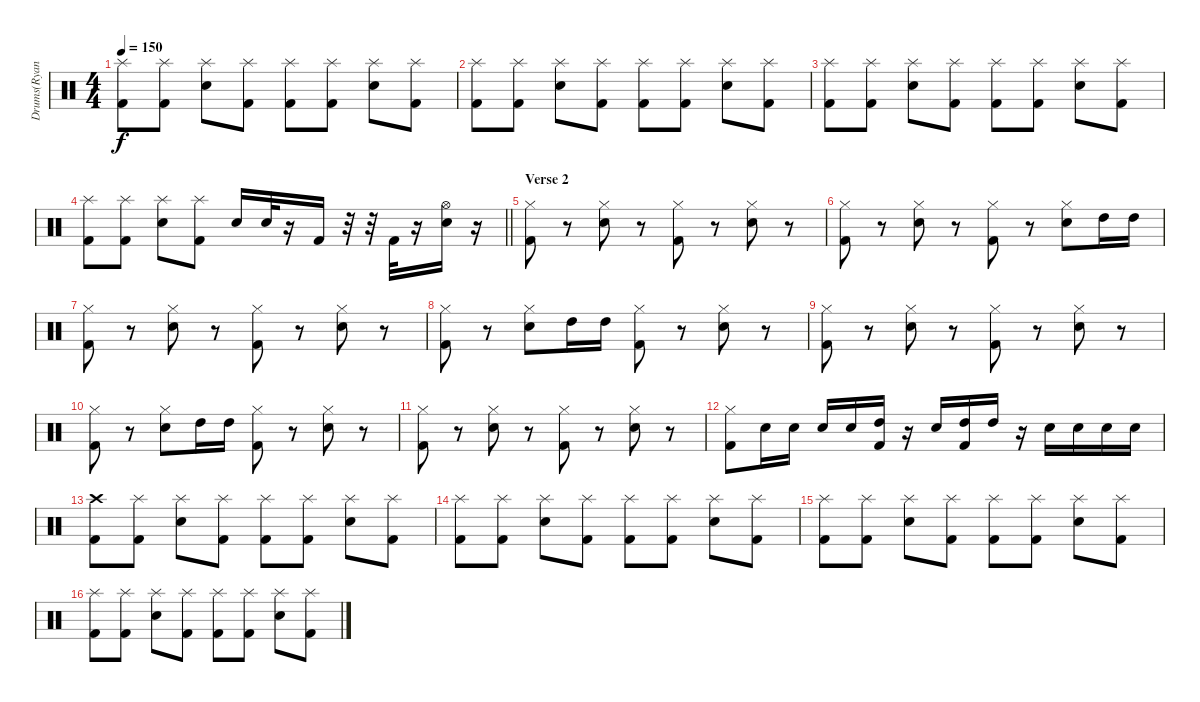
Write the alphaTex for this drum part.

\track ("Drums(Ryan)" "Drums(Ryan") {instrument percussion}
\staff {score}
\articulation defaults
\ts (4 4)
\tempo 150
\clef neutral
\ks c
("Splash (hit)" "Kick (hit) 2").8{dy f} ("Splash (hit)" "Kick (hit) 2").8 ("Splash (hit)" "Electric Snare (hit)").8 ("Splash (hit)" "Kick (hit) 2").8 ("Splash (hit)" "Kick (hit) 2").8 ("Splash (hit)" "Kick (hit) 2").8 ("Splash (hit)" "Electric Snare (hit)").8 ("Splash (hit)" "Kick (hit) 2").8 |
("Splash (hit)" "Kick (hit) 2").8 ("Splash (hit)" "Kick (hit) 2").8 ("Splash (hit)" "Electric Snare (hit)").8 ("Splash (hit)" "Kick (hit) 2").8 ("Splash (hit)" "Kick (hit) 2").8 ("Splash (hit)" "Kick (hit) 2").8 ("Splash (hit)" "Electric Snare (hit)").8 ("Splash (hit)" "Kick (hit) 2").8 |
("Splash (hit)" "Kick (hit) 2").8 ("Splash (hit)" "Kick (hit) 2").8 ("Splash (hit)" "Electric Snare (hit)").8 ("Splash (hit)" "Kick (hit) 2").8 ("Splash (hit)" "Kick (hit) 2").8 ("Splash (hit)" "Kick (hit) 2").8 ("Splash (hit)" "Electric Snare (hit)").8 ("Splash (hit)" "Kick (hit) 2").8 |
\barLineRight lightlight
("Splash (hit)" "Kick (hit) 2").8 ("Splash (hit)" "Kick (hit) 2").8 ("Splash (hit)" "Electric Snare (hit)").8 ("Splash (hit)" "Kick (hit) 2").8 "Electric Snare (hit)".16 "Electric Snare (hit)".32 r.16 "Kick (hit) 2".16 r.32 r.32 "Kick (hit) 2".32 r.16 ("Hi-Hat (open)" "Electric Snare (hit)").16 r.16 |
\section ("" "Verse 2")
("Hi-Hat (closed)" "Kick (hit) 2").8 r.8 ("Hi-Hat (closed)" "Electric Snare (hit)").8 r.8 ("Hi-Hat (closed)" "Kick (hit) 2").8 r.8 ("Hi-Hat (closed)" "Electric Snare (hit)").8 r.8 |
("Hi-Hat (closed)" "Kick (hit) 2").8 r.8 ("Hi-Hat (closed)" "Electric Snare (hit)").8 r.8 ("Hi-Hat (closed)" "Kick (hit) 2").8 r.8 ("Hi-Hat (closed)" "Electric Snare (hit)").8 "High Tom (hit)".16 "High Tom (hit)".16 |
("Hi-Hat (closed)" "Kick (hit) 2").8 r.8 ("Hi-Hat (closed)" "Electric Snare (hit)").8 r.8 ("Hi-Hat (closed)" "Kick (hit) 2").8 r.8 ("Hi-Hat (closed)" "Electric Snare (hit)").8 r.8 |
("Hi-Hat (closed)" "Kick (hit) 2").8 r.8 ("Hi-Hat (closed)" "Electric Snare (hit)").8 "High Tom (hit)".16 "High Tom (hit)".16 ("Hi-Hat (closed)" "Kick (hit) 2").8 r.8 ("Hi-Hat (closed)" "Electric Snare (hit)").8 r.8 |
("Hi-Hat (closed)" "Kick (hit) 2").8 r.8 ("Hi-Hat (closed)" "Electric Snare (hit)").8 r.8 ("Hi-Hat (closed)" "Kick (hit) 2").8 r.8 ("Hi-Hat (closed)" "Electric Snare (hit)").8 r.8 |
("Hi-Hat (closed)" "Kick (hit) 2").8 r.8 ("Hi-Hat (closed)" "Electric Snare (hit)").8 "High Tom (hit)".16 "High Tom (hit)".16 ("Hi-Hat (closed)" "Kick (hit) 2").8 r.8 ("Hi-Hat (closed)" "Electric Snare (hit)").8 r.8 |
("Hi-Hat (closed)" "Kick (hit) 2").8 r.8 ("Hi-Hat (closed)" "Electric Snare (hit)").8 r.8 ("Hi-Hat (closed)" "Kick (hit) 2").8 r.8 ("Hi-Hat (closed)" "Electric Snare (hit)").8 r.8 |
("Hi-Hat (closed)" "Kick (hit) 2").8 "Electric Snare (hit)".16 "Electric Snare (hit)".16 "Electric Snare (hit)".16 "Electric Snare (hit)".16 ("High Tom (hit)" "Kick (hit) 2").16 r.16 "Electric Snare (hit)".16 ("High Tom (hit)" "Kick (hit) 2").16 "High Tom (hit)".16 r.16 "Electric Snare (hit)".16 "Electric Snare (hit)".16 "Electric Snare (hit)".16 "Electric Snare (hit)".16 |
("Crash high (hit)" "Kick (hit) 2").8 ("Splash (hit)" "Kick (hit) 2").8 ("Splash (hit)" "Electric Snare (hit)").8 ("Splash (hit)" "Kick (hit) 2").8 ("Splash (hit)" "Kick (hit) 2").8 ("Splash (hit)" "Kick (hit) 2").8 ("Splash (hit)" "Electric Snare (hit)").8 ("Splash (hit)" "Kick (hit) 2").8 |
("Splash (hit)" "Kick (hit) 2").8 ("Splash (hit)" "Kick (hit) 2").8 ("Splash (hit)" "Electric Snare (hit)").8 ("Splash (hit)" "Kick (hit) 2").8 ("Splash (hit)" "Kick (hit) 2").8 ("Splash (hit)" "Kick (hit) 2").8 ("Splash (hit)" "Electric Snare (hit)").8 ("Splash (hit)" "Kick (hit) 2").8 |
("Splash (hit)" "Kick (hit) 2").8 ("Splash (hit)" "Kick (hit) 2").8 ("Splash (hit)" "Electric Snare (hit)").8 ("Splash (hit)" "Kick (hit) 2").8 ("Splash (hit)" "Kick (hit) 2").8 ("Splash (hit)" "Kick (hit) 2").8 ("Splash (hit)" "Electric Snare (hit)").8 ("Splash (hit)" "Kick (hit) 2").8 |
("Splash (hit)" "Kick (hit) 2").8 ("Splash (hit)" "Kick (hit) 2").8 ("Splash (hit)" "Electric Snare (hit)").8 ("Splash (hit)" "Kick (hit) 2").8 ("Splash (hit)" "Kick (hit) 2").8 ("Splash (hit)" "Kick (hit) 2").8 ("Splash (hit)" "Electric Snare (hit)").8 ("Splash (hit)" "Kick (hit) 2").8
